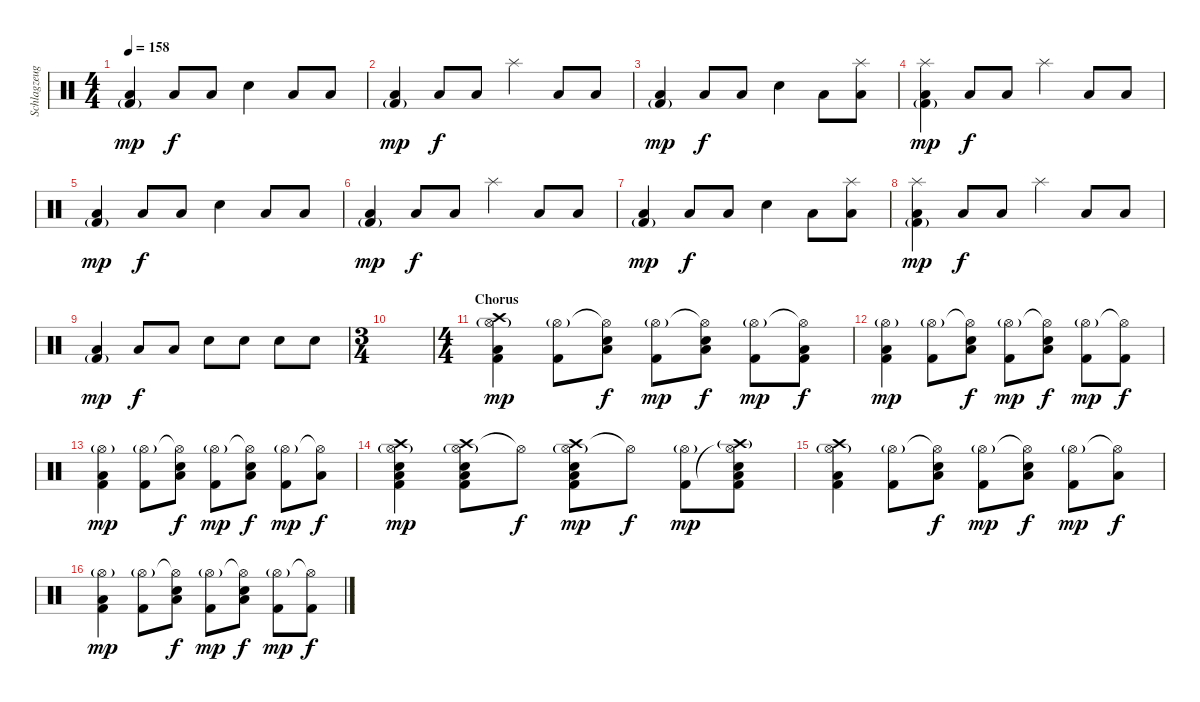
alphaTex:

\track ("Schlagzeug" "Schlagzeug") {instrument percussion}
\staff {score}
\articulation defaults
\ts (4 4)
\tempo 158
\clef neutral
\ks c
("Low Floor Tom (hit)" "Kick (hit) 2"{g}).4{dy mp} "Low Floor Tom (hit)".8{dy f} "Low Floor Tom (hit)".8 "Snare (hit) 2".4 "Low Floor Tom (hit)".8 "Low Floor Tom (hit)".8 |
("Low Floor Tom (hit)" "Kick (hit) 2"{g}).4{dy mp} "Low Floor Tom (hit)".8{dy f} "Low Floor Tom (hit)".8 "Splash (hit)".4 "Low Floor Tom (hit)".8 "Low Floor Tom (hit)".8 |
("Low Floor Tom (hit)" "Kick (hit) 2"{g}).4{dy mp} "Low Floor Tom (hit)".8{dy f} "Low Floor Tom (hit)".8 "Snare (hit) 2".4 "Low Floor Tom (hit)".8 ("Splash (hit)" "Low Floor Tom (hit)").8 |
("Splash (hit)" "Low Floor Tom (hit)" "Kick (hit) 2"{g}).4{dy mp} "Low Floor Tom (hit)".8{dy f} "Low Floor Tom (hit)".8 "Splash (hit)".4 "Low Floor Tom (hit)".8 "Low Floor Tom (hit)".8 |
("Low Floor Tom (hit)" "Kick (hit) 2"{g}).4{dy mp} "Low Floor Tom (hit)".8{dy f} "Low Floor Tom (hit)".8 "Snare (hit) 2".4 "Low Floor Tom (hit)".8 "Low Floor Tom (hit)".8 |
("Low Floor Tom (hit)" "Kick (hit) 2"{g}).4{dy mp} "Low Floor Tom (hit)".8{dy f} "Low Floor Tom (hit)".8 "Splash (hit)".4 "Low Floor Tom (hit)".8 "Low Floor Tom (hit)".8 |
("Low Floor Tom (hit)" "Kick (hit) 2"{g}).4{dy mp} "Low Floor Tom (hit)".8{dy f} "Low Floor Tom (hit)".8 "Snare (hit) 2".4 "Low Floor Tom (hit)".8 ("Splash (hit)" "Low Floor Tom (hit)").8 |
("Splash (hit)" "Low Floor Tom (hit)" "Kick (hit) 2"{g}).4{dy mp} "Low Floor Tom (hit)".8{dy f} "Low Floor Tom (hit)".8 "Splash (hit)".4 "Low Floor Tom (hit)".8 "Low Floor Tom (hit)".8 |
("Low Floor Tom (hit)" "Kick (hit) 2"{g}).4{dy mp} "Low Floor Tom (hit)".8{dy f} "Low Floor Tom (hit)".8 "Snare (hit) 2".8 "Snare (hit) 2".8 "Snare (hit) 2".8 "Snare (hit) 2".8 |
\ts (3 4)
|
\ts (4 4)
\section ("" "Chorus")
("Crash high (hit)" "Hi-Hat (open)"{g} "Low Floor Tom (hit)" "Kick (hit) 2").4{dy mp} ("Hi-Hat (open)"{g} "Kick (hit) 2").8 ("Hi-Hat (open)"{t} "Low Floor Tom (hit)" "Electric Snare (hit)").8{dy f} ("Hi-Hat (open)"{g} "Kick (hit) 2").8{dy mp} ("Hi-Hat (open)"{t} "Low Floor Tom (hit)" "Electric Snare (hit)").8{dy f} ("Hi-Hat (open)"{g} "Kick (hit) 2").8{dy mp} ("Hi-Hat (open)"{t} "Low Floor Tom (hit)" "Kick (hit) 2").8{dy f} |
("Hi-Hat (open)"{g} "Low Floor Tom (hit)" "Kick (hit) 2").4{dy mp} ("Hi-Hat (open)"{g} "Kick (hit) 2").8 ("Hi-Hat (open)"{t} "Low Floor Tom (hit)" "Electric Snare (hit)").8{dy f} ("Hi-Hat (open)"{g} "Kick (hit) 2").8{dy mp} ("Hi-Hat (open)"{t} "Low Floor Tom (hit)" "Electric Snare (hit)").8{dy f} ("Hi-Hat (open)"{g} "Kick (hit) 2").8{dy mp} ("Hi-Hat (open)"{t} "Kick (hit) 2").8{dy f} |
("Hi-Hat (open)"{g} "Low Floor Tom (hit)" "Kick (hit) 2").4{dy mp} ("Hi-Hat (open)"{g} "Kick (hit) 2").8 ("Hi-Hat (open)"{t} "Low Floor Tom (hit)" "Electric Snare (hit)").8{dy f} ("Hi-Hat (open)"{g} "Kick (hit) 2").8{dy mp} ("Hi-Hat (open)"{t} "Low Floor Tom (hit)" "Electric Snare (hit)").8{dy f} ("Hi-Hat (open)"{g} "Kick (hit) 2").8{dy mp} ("Hi-Hat (open)"{t} "Low Floor Tom (hit)").8{dy f} |
("Crash high (hit)" "Hi-Hat (open)"{g} "Low Floor Tom (hit)" "Electric Snare (hit)" "Kick (hit) 2").4{dy mp} ("Crash high (hit)" "Hi-Hat (open)"{g} "Low Floor Tom (hit)" "Electric Snare (hit)" "Kick (hit) 2").8 "Hi-Hat (open)"{t}.8{dy f} ("Crash high (hit)" "Hi-Hat (open)"{g} "Low Floor Tom (hit)" "Electric Snare (hit)" "Kick (hit) 2").8{dy mp} "Hi-Hat (open)"{t}.8{dy f} ("Hi-Hat (open)"{g} "Kick (hit) 2").8{dy mp} ("Crash high (hit)"{g} "Hi-Hat (open)"{t} "Low Floor Tom (hit)" "Electric Snare (hit)" "Kick (hit) 2").8 |
("Crash high (hit)" "Hi-Hat (open)"{g} "Low Floor Tom (hit)" "Kick (hit) 2").4 ("Hi-Hat (open)"{g} "Kick (hit) 2").8 ("Hi-Hat (open)"{t} "Low Floor Tom (hit)" "Electric Snare (hit)").8{dy f} ("Hi-Hat (open)"{g} "Kick (hit) 2").8{dy mp} ("Hi-Hat (open)"{t} "Low Floor Tom (hit)" "Electric Snare (hit)").8{dy f} ("Hi-Hat (open)"{g} "Kick (hit) 2").8{dy mp} ("Hi-Hat (open)"{t} "Low Floor Tom (hit)").8{dy f} |
("Hi-Hat (open)"{g} "Low Floor Tom (hit)" "Kick (hit) 2").4{dy mp} ("Hi-Hat (open)"{g} "Kick (hit) 2").8 ("Hi-Hat (open)"{t} "Low Floor Tom (hit)" "Electric Snare (hit)").8{dy f} ("Hi-Hat (open)"{g} "Kick (hit) 2").8{dy mp} ("Hi-Hat (open)"{t} "Low Floor Tom (hit)" "Electric Snare (hit)").8{dy f} ("Hi-Hat (open)"{g} "Kick (hit) 2").8{dy mp} ("Hi-Hat (open)"{t} "Kick (hit) 2").8{dy f}
